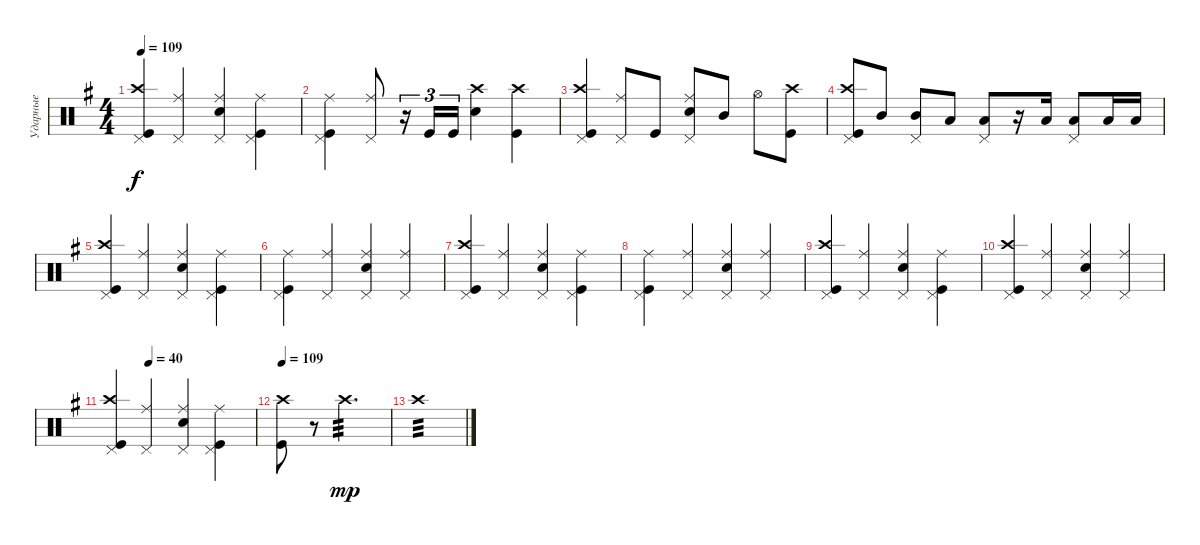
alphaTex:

\track ("Ударные" "Ударные") {instrument percussion}
\staff {score}
\articulation defaults
\ts (4 4)
\tempo 109
\clef neutral
\ks eminor
("Kick (hit)" "Crash high (hit)" "Pedal Hi-Hat (hit)").4{dy f} ("Ride (middle)" "Pedal Hi-Hat (hit)").4 ("Pedal Hi-Hat (hit)" "Snare (hit) 2" "Ride (middle)").4 ("Ride (middle)" "Kick (hit)" "Pedal Hi-Hat (hit)").4 |
("Kick (hit)" "Ride (middle)" "Pedal Hi-Hat (hit)").4 ("Ride (middle)" "Pedal Hi-Hat (hit)").8 r.16{tu (3 2)} "Kick (hit)".16{tu (3 2)} "Kick (hit)".16{tu (3 2)} ("Crash high (hit)" "Snare (hit) 2").4 ("Kick (hit)" "Crash high (hit)").4 |
("Kick (hit)" "Crash high (hit)" "Pedal Hi-Hat (hit)").4 ("Ride (middle)" "Pedal Hi-Hat (hit)").8 "Kick (hit)".8 ("Ride (middle)" "Snare (hit) 2" "Pedal Hi-Hat (hit)").8 "Mid Tom (hit)".8 "Hi-Hat (open)".8 ("Kick (hit)" "Crash high (hit)").8 |
("Kick (hit)" "Crash high (hit)" "Pedal Hi-Hat (hit)").8 "Mid Tom (hit)".8 ("Mid Tom (hit)" "Pedal Hi-Hat (hit)").8 "Low Tom (hit)".8 ("Low Tom (hit)" "Pedal Hi-Hat (hit)").8 r.16 "Low Tom (hit)".16 ("Low Tom (hit)" "Pedal Hi-Hat (hit)").8 "Low Tom (hit)".16 "Low Tom (hit)".16 |
("Kick (hit)" "Crash high (hit)" "Pedal Hi-Hat (hit)").4 ("Ride (middle)" "Pedal Hi-Hat (hit)").4 ("Pedal Hi-Hat (hit)" "Snare (hit) 2" "Ride (middle)").4 ("Ride (middle)" "Kick (hit)" "Pedal Hi-Hat (hit)").4 |
("Kick (hit)" "Ride (middle)" "Pedal Hi-Hat (hit)").4 ("Ride (middle)" "Pedal Hi-Hat (hit)").4 ("Pedal Hi-Hat (hit)" "Snare (hit) 2" "Ride (middle)").4 ("Ride (middle)" "Pedal Hi-Hat (hit)").4 |
("Kick (hit)" "Crash high (hit)" "Pedal Hi-Hat (hit)").4 ("Ride (middle)" "Pedal Hi-Hat (hit)").4 ("Pedal Hi-Hat (hit)" "Snare (hit) 2" "Ride (middle)").4 ("Ride (middle)" "Kick (hit)" "Pedal Hi-Hat (hit)").4 |
("Kick (hit)" "Ride (middle)" "Pedal Hi-Hat (hit)").4 ("Ride (middle)" "Pedal Hi-Hat (hit)").4 ("Pedal Hi-Hat (hit)" "Snare (hit) 2" "Ride (middle)").4 ("Ride (middle)" "Pedal Hi-Hat (hit)").4 |
("Kick (hit)" "Crash high (hit)" "Pedal Hi-Hat (hit)").4 ("Ride (middle)" "Pedal Hi-Hat (hit)").4 ("Pedal Hi-Hat (hit)" "Snare (hit) 2" "Ride (middle)").4 ("Ride (middle)" "Kick (hit)" "Pedal Hi-Hat (hit)").4 |
("Kick (hit)" "Crash high (hit)" "Pedal Hi-Hat (hit)").4 ("Ride (middle)" "Pedal Hi-Hat (hit)").4 ("Pedal Hi-Hat (hit)" "Snare (hit) 2" "Ride (middle)").4 ("Ride (middle)" "Pedal Hi-Hat (hit)").4 |
\tempo (40 0.25)
("Kick (hit)" "Crash high (hit)" "Pedal Hi-Hat (hit)").4 ("Ride (middle)" "Pedal Hi-Hat (hit)").4 ("Pedal Hi-Hat (hit)" "Snare (hit) 2" "Ride (middle)").4 ("Ride (middle)" "Kick (hit)" "Pedal Hi-Hat (hit)").4 |
\tempo 109
("Kick (hit)" "Crash high (hit)").8 r.8{volume 5} "Crash high (hit)".2{d tp 3 dy mp volume 10} |
"Crash high (hit)".1{tp 3 volume 5}
